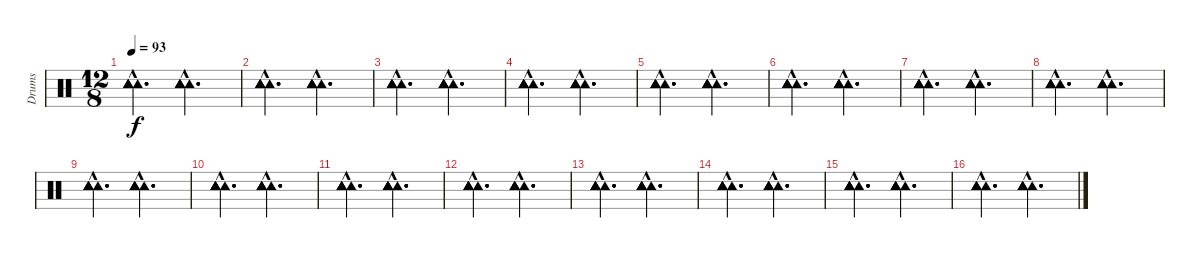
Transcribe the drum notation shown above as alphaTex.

\track ("Drums" "Drums") {instrument percussion}
\staff {score}
\articulation defaults
\ts (12 8)
\tempo 93
\clef neutral
\ks c
("Tambourine (hit)"{hac} "Tambourine (hit)"{hac} "Tambourine (hit)"{hac} "Tambourine (hit)"{hac} "Tambourine (hit)"{hac} "Tambourine (hit)"{hac}).2{d dy f} ("Tambourine (hit)"{hac} "Tambourine (hit)"{hac} "Tambourine (hit)"{hac} "Tambourine (hit)"{hac} "Tambourine (hit)"{hac} "Tambourine (hit)"{hac}).2{d} |
("Tambourine (hit)"{hac} "Tambourine (hit)"{hac} "Tambourine (hit)"{hac} "Tambourine (hit)"{hac} "Tambourine (hit)"{hac} "Tambourine (hit)"{hac}).2{d} ("Tambourine (hit)"{hac} "Tambourine (hit)"{hac} "Tambourine (hit)"{hac} "Tambourine (hit)"{hac} "Tambourine (hit)"{hac} "Tambourine (hit)"{hac}).2{d} |
("Tambourine (hit)"{hac} "Tambourine (hit)"{hac} "Tambourine (hit)"{hac} "Tambourine (hit)"{hac} "Tambourine (hit)"{hac} "Tambourine (hit)"{hac}).2{d} ("Tambourine (hit)"{hac} "Tambourine (hit)"{hac} "Tambourine (hit)"{hac} "Tambourine (hit)"{hac} "Tambourine (hit)"{hac} "Tambourine (hit)"{hac}).2{d} |
("Tambourine (hit)"{hac} "Tambourine (hit)"{hac} "Tambourine (hit)"{hac} "Tambourine (hit)"{hac} "Tambourine (hit)"{hac} "Tambourine (hit)"{hac}).2{d} ("Tambourine (hit)"{hac} "Tambourine (hit)"{hac} "Tambourine (hit)"{hac} "Tambourine (hit)"{hac} "Tambourine (hit)"{hac} "Tambourine (hit)"{hac}).2{d} |
("Tambourine (hit)"{hac} "Tambourine (hit)"{hac} "Tambourine (hit)"{hac} "Tambourine (hit)"{hac} "Tambourine (hit)"{hac} "Tambourine (hit)"{hac}).2{d} ("Tambourine (hit)"{hac} "Tambourine (hit)"{hac} "Tambourine (hit)"{hac} "Tambourine (hit)"{hac} "Tambourine (hit)"{hac} "Tambourine (hit)"{hac}).2{d} |
("Tambourine (hit)"{hac} "Tambourine (hit)"{hac} "Tambourine (hit)"{hac} "Tambourine (hit)"{hac} "Tambourine (hit)"{hac} "Tambourine (hit)"{hac}).2{d} ("Tambourine (hit)"{hac} "Tambourine (hit)"{hac} "Tambourine (hit)"{hac} "Tambourine (hit)"{hac} "Tambourine (hit)"{hac} "Tambourine (hit)"{hac}).2{d} |
("Tambourine (hit)"{hac} "Tambourine (hit)"{hac} "Tambourine (hit)"{hac} "Tambourine (hit)"{hac} "Tambourine (hit)"{hac} "Tambourine (hit)"{hac}).2{d} ("Tambourine (hit)"{hac} "Tambourine (hit)"{hac} "Tambourine (hit)"{hac} "Tambourine (hit)"{hac} "Tambourine (hit)"{hac} "Tambourine (hit)"{hac}).2{d} |
("Tambourine (hit)"{hac} "Tambourine (hit)"{hac} "Tambourine (hit)"{hac} "Tambourine (hit)"{hac} "Tambourine (hit)"{hac} "Tambourine (hit)"{hac}).2{d} ("Tambourine (hit)"{hac} "Tambourine (hit)"{hac} "Tambourine (hit)"{hac} "Tambourine (hit)"{hac} "Tambourine (hit)"{hac} "Tambourine (hit)"{hac}).2{d} |
("Tambourine (hit)"{hac} "Tambourine (hit)"{hac} "Tambourine (hit)"{hac} "Tambourine (hit)"{hac} "Tambourine (hit)"{hac} "Tambourine (hit)"{hac}).2{d} ("Tambourine (hit)"{hac} "Tambourine (hit)"{hac} "Tambourine (hit)"{hac} "Tambourine (hit)"{hac} "Tambourine (hit)"{hac} "Tambourine (hit)"{hac}).2{d} |
("Tambourine (hit)"{hac} "Tambourine (hit)"{hac} "Tambourine (hit)"{hac} "Tambourine (hit)"{hac} "Tambourine (hit)"{hac} "Tambourine (hit)"{hac}).2{d} ("Tambourine (hit)"{hac} "Tambourine (hit)"{hac} "Tambourine (hit)"{hac} "Tambourine (hit)"{hac} "Tambourine (hit)"{hac} "Tambourine (hit)"{hac}).2{d} |
("Tambourine (hit)"{hac} "Tambourine (hit)"{hac} "Tambourine (hit)"{hac} "Tambourine (hit)"{hac} "Tambourine (hit)"{hac} "Tambourine (hit)"{hac}).2{d} ("Tambourine (hit)"{hac} "Tambourine (hit)"{hac} "Tambourine (hit)"{hac} "Tambourine (hit)"{hac} "Tambourine (hit)"{hac} "Tambourine (hit)"{hac}).2{d} |
("Tambourine (hit)"{hac} "Tambourine (hit)"{hac} "Tambourine (hit)"{hac} "Tambourine (hit)"{hac} "Tambourine (hit)"{hac} "Tambourine (hit)"{hac}).2{d} ("Tambourine (hit)"{hac} "Tambourine (hit)"{hac} "Tambourine (hit)"{hac} "Tambourine (hit)"{hac} "Tambourine (hit)"{hac} "Tambourine (hit)"{hac}).2{d} |
("Tambourine (hit)"{hac} "Tambourine (hit)"{hac} "Tambourine (hit)"{hac} "Tambourine (hit)"{hac} "Tambourine (hit)"{hac} "Tambourine (hit)"{hac}).2{d} ("Tambourine (hit)"{hac} "Tambourine (hit)"{hac} "Tambourine (hit)"{hac} "Tambourine (hit)"{hac} "Tambourine (hit)"{hac} "Tambourine (hit)"{hac}).2{d} |
("Tambourine (hit)"{hac} "Tambourine (hit)"{hac} "Tambourine (hit)"{hac} "Tambourine (hit)"{hac} "Tambourine (hit)"{hac} "Tambourine (hit)"{hac}).2{d} ("Tambourine (hit)"{hac} "Tambourine (hit)"{hac} "Tambourine (hit)"{hac} "Tambourine (hit)"{hac} "Tambourine (hit)"{hac} "Tambourine (hit)"{hac}).2{d} |
("Tambourine (hit)"{hac} "Tambourine (hit)"{hac} "Tambourine (hit)"{hac} "Tambourine (hit)"{hac} "Tambourine (hit)"{hac} "Tambourine (hit)"{hac}).2{d} ("Tambourine (hit)"{hac} "Tambourine (hit)"{hac} "Tambourine (hit)"{hac} "Tambourine (hit)"{hac} "Tambourine (hit)"{hac} "Tambourine (hit)"{hac}).2{d} |
("Tambourine (hit)"{hac} "Tambourine (hit)"{hac} "Tambourine (hit)"{hac} "Tambourine (hit)"{hac} "Tambourine (hit)"{hac} "Tambourine (hit)"{hac}).2{d} ("Tambourine (hit)"{hac} "Tambourine (hit)"{hac} "Tambourine (hit)"{hac} "Tambourine (hit)"{hac} "Tambourine (hit)"{hac} "Tambourine (hit)"{hac}).2{d}
